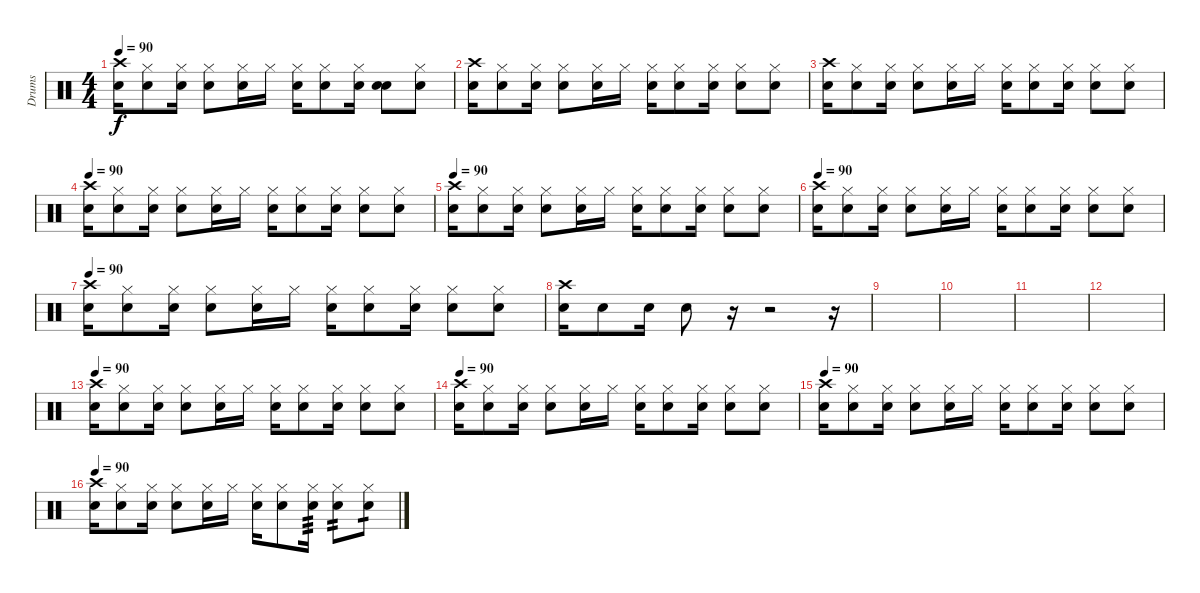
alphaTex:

\track ("Drums" "Drums") {instrument percussion}
\staff {score}
\articulation defaults
\ts (4 4)
\tempo 90
\clef neutral
\ks c
("Crash high (hit)" "Snare (hit) 2").16{dy f} ("Hi-Hat (closed)" "Snare (hit) 2").8 ("Hi-Hat (closed)" "Snare (hit) 2").16 ("Hi-Hat (closed)" "Snare (hit) 2").8 ("Hi-Hat (closed)" "Snare (hit) 2").16 "Hi-Hat (closed)".16 ("Hi-Hat (closed)" "Snare (hit) 2").16 ("Hi-Hat (closed)" "Snare (hit) 2").8 ("Hi-Hat (closed)" "Snare (hit) 2").16 ("Snare (hit)" "Snare (hit) 2").8 ("Hi-Hat (closed)" "Snare (hit) 2").8 |
("Crash high (hit)" "Snare (hit) 2").16 ("Hi-Hat (closed)" "Snare (hit) 2").8 ("Hi-Hat (closed)" "Snare (hit) 2").16 ("Hi-Hat (closed)" "Snare (hit) 2").8 ("Hi-Hat (closed)" "Snare (hit) 2").16 "Hi-Hat (closed)".16 ("Hi-Hat (closed)" "Snare (hit) 2").16 ("Hi-Hat (closed)" "Snare (hit) 2").8 ("Hi-Hat (closed)" "Snare (hit) 2").16 ("Hi-Hat (closed)" "Snare (hit) 2").8 ("Hi-Hat (closed)" "Snare (hit) 2").8 |
("Crash high (hit)" "Snare (hit) 2").16 ("Hi-Hat (closed)" "Snare (hit) 2").8 ("Hi-Hat (closed)" "Snare (hit) 2").16 ("Hi-Hat (closed)" "Snare (hit) 2").8 ("Hi-Hat (closed)" "Snare (hit) 2").16 "Hi-Hat (closed)".16 ("Hi-Hat (closed)" "Snare (hit) 2").16 ("Hi-Hat (closed)" "Snare (hit) 2").8 ("Hi-Hat (closed)" "Snare (hit) 2").16 ("Hi-Hat (closed)" "Snare (hit) 2").8 ("Hi-Hat (closed)" "Snare (hit) 2").8 |
\tempo 90
("Crash high (hit)" "Snare (hit) 2").16 ("Hi-Hat (closed)" "Snare (hit) 2").8 ("Hi-Hat (closed)" "Snare (hit) 2").16 ("Hi-Hat (closed)" "Snare (hit) 2").8 ("Hi-Hat (closed)" "Snare (hit) 2").16 "Hi-Hat (closed)".16 ("Hi-Hat (closed)" "Snare (hit) 2").16 ("Hi-Hat (closed)" "Snare (hit) 2").8 ("Hi-Hat (closed)" "Snare (hit) 2").16 ("Hi-Hat (closed)" "Snare (hit) 2").8 ("Hi-Hat (closed)" "Snare (hit) 2").8 |
\tempo 90
("Crash high (hit)" "Snare (hit) 2").16 ("Hi-Hat (closed)" "Snare (hit) 2").8 ("Hi-Hat (closed)" "Snare (hit) 2").16 ("Hi-Hat (closed)" "Snare (hit) 2").8 ("Hi-Hat (closed)" "Snare (hit) 2").16 "Hi-Hat (closed)".16 ("Hi-Hat (closed)" "Snare (hit) 2").16 ("Hi-Hat (closed)" "Snare (hit) 2").8 ("Hi-Hat (closed)" "Snare (hit) 2").16 ("Hi-Hat (closed)" "Snare (hit) 2").8 ("Hi-Hat (closed)" "Snare (hit) 2").8 |
\tempo 90
("Crash high (hit)" "Snare (hit) 2").16 ("Hi-Hat (closed)" "Snare (hit) 2").8 ("Hi-Hat (closed)" "Snare (hit) 2").16 ("Hi-Hat (closed)" "Snare (hit) 2").8 ("Hi-Hat (closed)" "Snare (hit) 2").16 "Hi-Hat (closed)".16 ("Hi-Hat (closed)" "Snare (hit) 2").16 ("Hi-Hat (closed)" "Snare (hit) 2").8 ("Hi-Hat (closed)" "Snare (hit) 2").16 ("Hi-Hat (closed)" "Snare (hit) 2").8 ("Hi-Hat (closed)" "Snare (hit) 2").8 |
\tempo 90
("Crash high (hit)" "Snare (hit) 2").16 ("Hi-Hat (closed)" "Snare (hit) 2").8 ("Hi-Hat (closed)" "Snare (hit) 2").16 ("Hi-Hat (closed)" "Snare (hit) 2").8 ("Hi-Hat (closed)" "Snare (hit) 2").16 "Hi-Hat (closed)".16 ("Hi-Hat (closed)" "Snare (hit) 2").16 ("Hi-Hat (closed)" "Snare (hit) 2").8 ("Hi-Hat (closed)" "Snare (hit) 2").16 ("Hi-Hat (closed)" "Snare (hit) 2").8 ("Hi-Hat (closed)" "Snare (hit) 2").8 |
("Crash high (hit)" "Snare (hit) 2").16 "Snare (hit) 2".8 "Snare (hit) 2".16 "Snare (hit) 2".8 r.16 r.2 r.16 |
|
|
|
|
\tempo 90
("Crash high (hit)" "Snare (hit) 2").16 ("Hi-Hat (closed)" "Snare (hit) 2").8 ("Hi-Hat (closed)" "Snare (hit) 2").16 ("Hi-Hat (closed)" "Snare (hit) 2").8 ("Hi-Hat (closed)" "Snare (hit) 2").16 "Hi-Hat (closed)".16 ("Hi-Hat (closed)" "Snare (hit) 2").16 ("Hi-Hat (closed)" "Snare (hit) 2").8 ("Hi-Hat (closed)" "Snare (hit) 2").16 ("Hi-Hat (closed)" "Snare (hit) 2").8 ("Hi-Hat (closed)" "Snare (hit) 2").8 |
\tempo 90
("Crash high (hit)" "Snare (hit) 2").16 ("Hi-Hat (closed)" "Snare (hit) 2").8 ("Hi-Hat (closed)" "Snare (hit) 2").16 ("Hi-Hat (closed)" "Snare (hit) 2").8 ("Hi-Hat (closed)" "Snare (hit) 2").16 "Hi-Hat (closed)".16 ("Hi-Hat (closed)" "Snare (hit) 2").16 ("Hi-Hat (closed)" "Snare (hit) 2").8 ("Hi-Hat (closed)" "Snare (hit) 2").16 ("Hi-Hat (closed)" "Snare (hit) 2").8 ("Hi-Hat (closed)" "Snare (hit) 2").8 |
\tempo 90
("Crash high (hit)" "Snare (hit) 2").16 ("Hi-Hat (closed)" "Snare (hit) 2").8 ("Hi-Hat (closed)" "Snare (hit) 2").16 ("Hi-Hat (closed)" "Snare (hit) 2").8 ("Hi-Hat (closed)" "Snare (hit) 2").16 "Hi-Hat (closed)".16 ("Hi-Hat (closed)" "Snare (hit) 2").16 ("Hi-Hat (closed)" "Snare (hit) 2").8 ("Hi-Hat (closed)" "Snare (hit) 2").16 ("Hi-Hat (closed)" "Snare (hit) 2").8 ("Hi-Hat (closed)" "Snare (hit) 2").8 |
\tempo 90
("Crash high (hit)" "Snare (hit) 2").16 ("Hi-Hat (closed)" "Snare (hit) 2").8 ("Hi-Hat (closed)" "Snare (hit) 2").16 ("Hi-Hat (closed)" "Snare (hit) 2").8 ("Hi-Hat (closed)" "Snare (hit) 2").16 "Hi-Hat (closed)".16 ("Hi-Hat (closed)" "Snare (hit) 2").16 ("Hi-Hat (closed)" "Snare (hit) 2").8 ("Hi-Hat (closed)" "Snare (hit) 2").16{tp 3} ("Hi-Hat (closed)" "Snare (hit) 2").8{tp 2} ("Hi-Hat (closed)" "Snare (hit) 2").8{tp 1}
